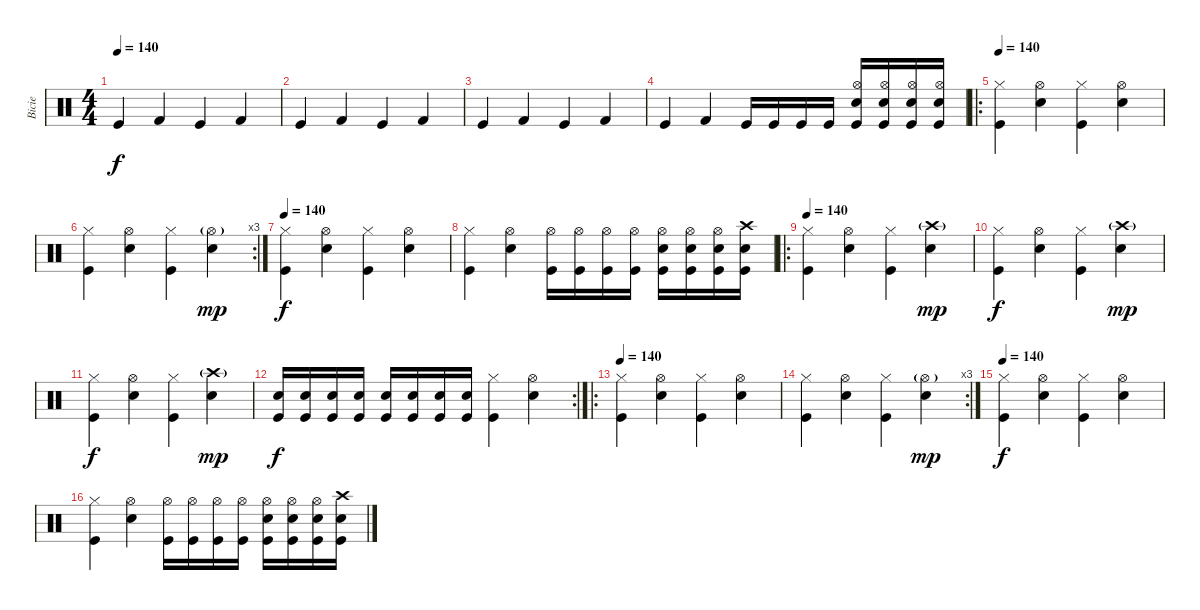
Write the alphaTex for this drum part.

\track ("Bicie" "Bicie") {instrument percussion}
\staff {score}
\articulation defaults
\ts (4 4)
\tempo 140
\clef neutral
\ks c "Kick (hit)".4{dy f} "Kick (hit) 2".4 "Kick (hit)".4 "Kick (hit) 2".4
|
"Kick (hit)".4 "Kick (hit) 2".4 "Kick (hit)".4 "Kick (hit) 2".4 |
"Kick (hit)".4 "Kick (hit) 2".4 "Kick (hit)".4 "Kick (hit) 2".4 |
"Kick (hit)".4 "Kick (hit) 2".4 "Kick (hit)".16 "Kick (hit)".16 "Kick (hit)".16 "Kick (hit)".16 ("Hi-Hat (open)" "Electric Snare (hit)" "Kick (hit)").16 ("Hi-Hat (open)" "Electric Snare (hit)" "Kick (hit)").16 ("Hi-Hat (open)" "Electric Snare (hit)" "Kick (hit)").16 ("Hi-Hat (open)" "Electric Snare (hit)" "Kick (hit)").16 |
\ro
\tempo 140
("Hi-Hat (closed)" "Kick (hit)").4 ("Hi-Hat (open)" "Electric Snare (hit)").4 ("Hi-Hat (closed)" "Kick (hit)").4 ("Hi-Hat (open)" "Electric Snare (hit)").4 |
\rc 3
("Hi-Hat (closed)" "Kick (hit)").4 ("Hi-Hat (open)" "Electric Snare (hit)").4 ("Hi-Hat (closed)" "Kick (hit)").4 ("Hi-Hat (open)"{g} "Electric Snare (hit)").4{dy mp} |
\tempo 140
("Hi-Hat (closed)" "Kick (hit)").4{dy f} ("Hi-Hat (open)" "Electric Snare (hit)").4 ("Hi-Hat (closed)" "Kick (hit)").4 ("Hi-Hat (open)" "Electric Snare (hit)").4 |
("Hi-Hat (closed)" "Kick (hit)").4 ("Hi-Hat (open)" "Electric Snare (hit)").4 ("Hi-Hat (open)" "Kick (hit)").16 ("Hi-Hat (open)" "Kick (hit)").16 ("Hi-Hat (open)" "Kick (hit)").16 ("Hi-Hat (open)" "Kick (hit)").16 ("Hi-Hat (open)" "Electric Snare (hit)" "Kick (hit)").16 ("Hi-Hat (open)" "Electric Snare (hit)" "Kick (hit)").16 ("Hi-Hat (open)" "Electric Snare (hit)" "Kick (hit)").16 ("Crash high (hit)" "Electric Snare (hit)" "Kick (hit)").16 |
\ro
\tempo 140
("Hi-Hat (closed)" "Kick (hit)").4 ("Hi-Hat (open)" "Electric Snare (hit)").4 ("Hi-Hat (closed)" "Kick (hit)").4 ("Crash high (hit)"{g} "Electric Snare (hit)").4{dy mp} |
("Hi-Hat (closed)" "Kick (hit)").4{dy f} ("Hi-Hat (open)" "Electric Snare (hit)").4 ("Hi-Hat (closed)" "Kick (hit)").4 ("Crash high (hit)"{g} "Electric Snare (hit)").4{dy mp} |
("Hi-Hat (closed)" "Kick (hit)").4{dy f} ("Hi-Hat (open)" "Electric Snare (hit)").4 ("Hi-Hat (closed)" "Kick (hit)").4 ("Crash high (hit)"{g} "Electric Snare (hit)").4{dy mp} |
\rc 2
("Electric Snare (hit)" "Kick (hit)").16{dy f} ("Electric Snare (hit)" "Kick (hit)").16 ("Electric Snare (hit)" "Kick (hit)").16 ("Electric Snare (hit)" "Kick (hit)").16 ("Electric Snare (hit)" "Kick (hit)").16 ("Electric Snare (hit)" "Kick (hit)").16 ("Electric Snare (hit)" "Kick (hit)").16 ("Electric Snare (hit)" "Kick (hit)").16 ("Hi-Hat (closed)" "Kick (hit)").4 ("Hi-Hat (open)" "Electric Snare (hit)").4 |
\ro
\tempo 140
("Hi-Hat (closed)" "Kick (hit)").4 ("Hi-Hat (open)" "Electric Snare (hit)").4 ("Hi-Hat (closed)" "Kick (hit)").4 ("Hi-Hat (open)" "Electric Snare (hit)").4 |
\rc 3
("Hi-Hat (closed)" "Kick (hit)").4 ("Hi-Hat (open)" "Electric Snare (hit)").4 ("Hi-Hat (closed)" "Kick (hit)").4 ("Hi-Hat (open)"{g} "Electric Snare (hit)").4{dy mp} |
\tempo 140
("Hi-Hat (closed)" "Kick (hit)").4{dy f} ("Hi-Hat (open)" "Electric Snare (hit)").4 ("Hi-Hat (closed)" "Kick (hit)").4 ("Hi-Hat (open)" "Electric Snare (hit)").4 |
("Hi-Hat (closed)" "Kick (hit)").4 ("Hi-Hat (open)" "Electric Snare (hit)").4 ("Hi-Hat (open)" "Kick (hit)").16 ("Hi-Hat (open)" "Kick (hit)").16 ("Hi-Hat (open)" "Kick (hit)").16 ("Hi-Hat (open)" "Kick (hit)").16 ("Hi-Hat (open)" "Electric Snare (hit)" "Kick (hit)").16 ("Hi-Hat (open)" "Electric Snare (hit)" "Kick (hit)").16 ("Hi-Hat (open)" "Electric Snare (hit)" "Kick (hit)").16 ("Crash high (hit)" "Electric Snare (hit)" "Kick (hit)").16
